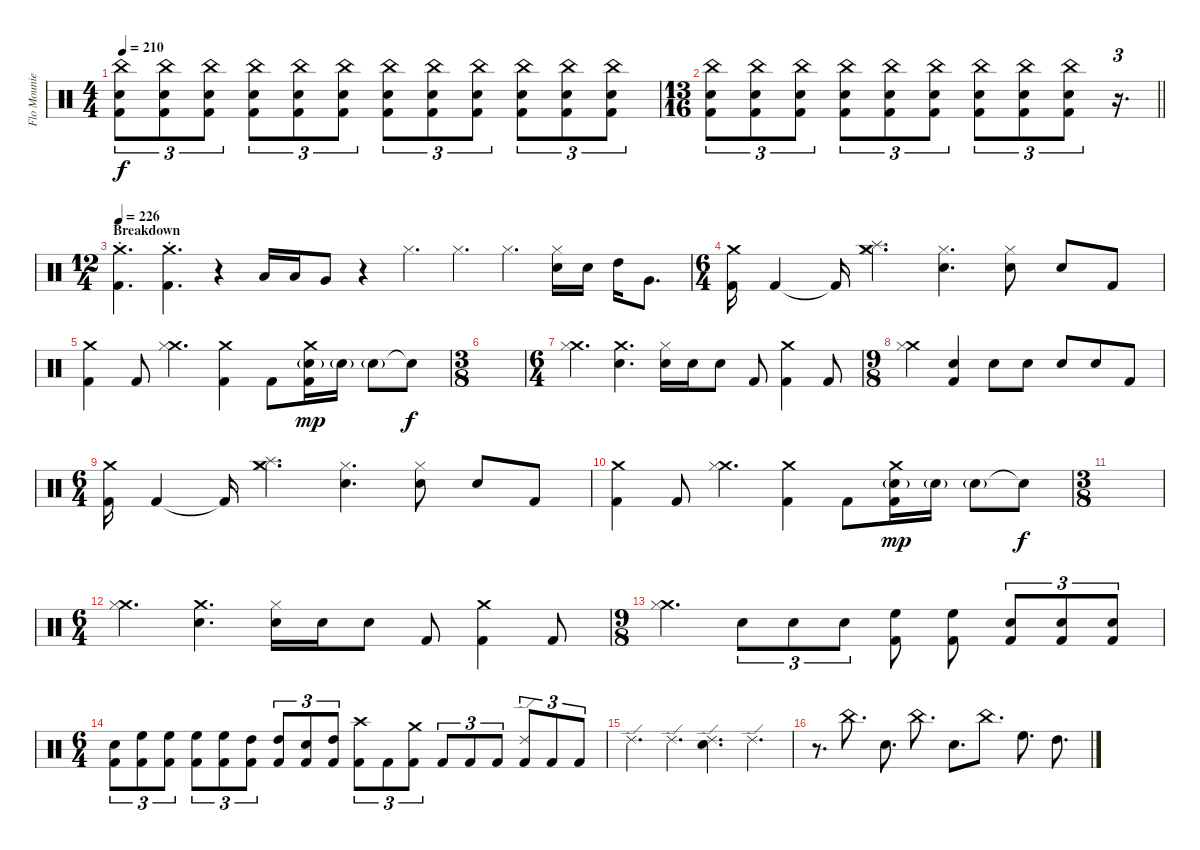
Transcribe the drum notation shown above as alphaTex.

\track ("Flo Mounier" "Flo Mounie") {instrument percussion}
\staff {score}
\articulation defaults
\ts (4 4)
\tempo 210
\clef neutral
\ks c
("China (hit)" "Snare (hit) 2" "Kick (hit) 2").8{tu (3 2) dy f} ("China (hit)" "Snare (hit) 2" "Kick (hit) 2").8{tu (3 2)} ("China (hit)" "Snare (hit) 2" "Kick (hit) 2").8{tu (3 2)} ("China (hit)" "Snare (hit) 2" "Kick (hit) 2").8{tu (3 2)} ("China (hit)" "Snare (hit) 2" "Kick (hit) 2").8{tu (3 2)} ("China (hit)" "Snare (hit) 2" "Kick (hit) 2").8{tu (3 2)} ("China (hit)" "Snare (hit) 2" "Kick (hit) 2").8{tu (3 2)} ("China (hit)" "Snare (hit) 2" "Kick (hit) 2").8{tu (3 2)} ("China (hit)" "Snare (hit) 2" "Kick (hit) 2").8{tu (3 2)} ("China (hit)" "Snare (hit) 2" "Kick (hit) 2").8{tu (3 2)} ("China (hit)" "Snare (hit) 2" "Kick (hit) 2").8{tu (3 2)} ("China (hit)" "Snare (hit) 2" "Kick (hit) 2").8{tu (3 2)} |
\ts (13 16)
\barLineRight lightlight
("China (hit)" "Snare (hit) 2" "Kick (hit) 2").8{tu (3 2)} ("China (hit)" "Snare (hit) 2" "Kick (hit) 2").8{tu (3 2)} ("China (hit)" "Snare (hit) 2" "Kick (hit) 2").8{tu (3 2)} ("China (hit)" "Snare (hit) 2" "Kick (hit) 2").8{tu (3 2)} ("China (hit)" "Snare (hit) 2" "Kick (hit) 2").8{tu (3 2)} ("China (hit)" "Snare (hit) 2" "Kick (hit) 2").8{tu (3 2)} ("China (hit)" "Snare (hit) 2" "Kick (hit) 2").8{tu (3 2)} ("China (hit)" "Snare (hit) 2" "Kick (hit) 2").8{tu (3 2)} ("China (hit)" "Snare (hit) 2" "Kick (hit) 2").8{tu (3 2)} r.16{d tu (3 2)} |
\ts (12 4)
\section ("" "Breakdown")
\tempo 226
("Crash medium (hit)"{st} "Kick (hit) 2").4{d} ("Crash medium (hit)"{st} "Kick (hit) 2").4{d} r.4 "Low Tom (hit)".16 "Low Tom (hit)".16 "Very Low Tom (hit)".8 r.4 "Hi-Hat (closed)".4{d} "Hi-Hat (closed)".4{d} "Hi-Hat (closed)".4{d} ("Snare (hit) 2" "Hi-Hat (closed)").16 "Snare (hit) 2".16 "High Tom (hit)".16 "Very Low Tom (hit)".8{d} |
\ts (6 4)
("Crash medium (hit)" "Kick (hit) 2").16 "Kick (hit) 2".4 "Kick (hit) 2"{t}.16 ("Crash medium (hit)" "Splash (hit)" "Hi-Hat (closed)").4{d} ("Snare (hit) 2" "Hi-Hat (closed)").4{d} ("Snare (hit) 2" "Hi-Hat (closed)").8 "Snare (hit) 2".8 "Kick (hit) 2".8 |
("Crash medium (hit)" "Kick (hit) 2").4 "Kick (hit) 2".8 ("Crash medium (hit)" "Hi-Hat (closed)").4{d} ("Crash medium (hit)" "Kick (hit) 2").4 "Kick (hit) 2".8 ("Crash medium (hit)" "Snare (hit) 2"{g} "Kick (hit) 2").16{dy mp} "Snare (hit) 2"{g}.16 "Snare (hit) 2"{g}.8 "Snare (hit) 2"{t}.8{dy f} |
\ts (3 8)
|
\ts (6 4)
("Crash medium (hit)" "Hi-Hat (closed)").4{d} ("Crash medium (hit)" "Snare (hit) 2").4{d} ("Snare (hit) 2" "Hi-Hat (closed)").16 "Snare (hit) 2".16 "Snare (hit) 2".8 "Kick (hit) 2".8 ("Crash medium (hit)" "Kick (hit) 2").4 "Kick (hit) 2".8 |
\ts (9 8)
("Crash medium (hit)" "Hi-Hat (closed)").4 ("Snare (hit) 2" "Kick (hit) 2").4 "Snare (hit) 2".8 "Snare (hit) 2".8 "Snare (hit) 2".8 "Snare (hit) 2".8 "Kick (hit) 2".8 |
\ts (6 4)
("Crash medium (hit)" "Kick (hit) 2").16 "Kick (hit) 2".4 "Kick (hit) 2"{t}.16 ("Crash medium (hit)" "Splash (hit)" "Hi-Hat (closed)").4{d} ("Snare (hit) 2" "Hi-Hat (closed)").4{d} ("Snare (hit) 2" "Hi-Hat (closed)").8 "Snare (hit) 2".8 "Kick (hit) 2".8 |
("Crash medium (hit)" "Kick (hit) 2").4 "Kick (hit) 2".8 ("Crash medium (hit)" "Hi-Hat (closed)").4{d} ("Crash medium (hit)" "Kick (hit) 2").4 "Kick (hit) 2".8 ("Crash medium (hit)" "Snare (hit) 2"{g} "Kick (hit) 2").16{dy mp} "Snare (hit) 2"{g}.16 "Snare (hit) 2"{g}.8 "Snare (hit) 2"{t}.8{dy f} |
\ts (3 8)
|
\ts (6 4)
("Crash medium (hit)" "Hi-Hat (closed)").4{d} ("Crash medium (hit)" "Snare (hit) 2").4{d} ("Snare (hit) 2" "Hi-Hat (closed)").16 "Snare (hit) 2".16 "Snare (hit) 2".8 "Kick (hit) 2".8 ("Crash medium (hit)" "Kick (hit) 2").4 "Kick (hit) 2".8 |
\ts (9 8)
("Crash medium (hit)" "Hi-Hat (closed)").4{d} "Snare (hit) 2".8{tu (3 2)} "Snare (hit) 2".8{tu (3 2)} "Snare (hit) 2".8{tu (3 2)} ("High Floor Tom (hit)" "Kick (hit) 2").8 ("High Floor Tom (hit)" "Kick (hit) 2").8 ("Snare (hit) 2" "Kick (hit) 2").8{tu (3 2)} ("Snare (hit) 2" "Kick (hit) 2").8{tu (3 2)} ("Snare (hit) 2" "Kick (hit) 2").8{tu (3 2)} |
\ts (6 4)
("Snare (hit) 2" "Kick (hit) 2").8{tu (3 2)} ("High Floor Tom (hit)" "Kick (hit) 2").8{tu (3 2)} ("High Floor Tom (hit)" "Kick (hit) 2").8{tu (3 2)} ("High Floor Tom (hit)" "Kick (hit) 2").8{tu (3 2)} ("High Floor Tom (hit)" "Kick (hit) 2").8{tu (3 2)} ("High Tom (hit)" "Kick (hit) 2").8{tu (3 2)} ("High Tom (hit)" "Kick (hit) 2").8{tu (3 2)} ("Snare (hit) 2" "Kick (hit) 2").8{tu (3 2)} ("High Tom (hit)" "Kick (hit) 2").8{tu (3 2)} ("Crash high (hit)" "Kick (hit) 2").8{tu (3 2)} "Kick (hit) 2".8{tu (3 2)} ("Crash medium (hit)" "Kick (hit) 2").8{tu (3 2)} "Kick (hit) 2".8{tu (3 2)} "Kick (hit) 2".8{tu (3 2)} "Kick (hit) 2".8{tu (3 2)} ("Ride (edge) 2" "Kick (hit) 2").8{tu (3 2)} "Kick (hit) 2".8{tu (3 2)} "Kick (hit) 2".8{tu (3 2)} |
"Ride (edge) 2".4{d} "Ride (edge) 2".4{d} ("Ride (edge) 2" "Snare (hit) 2").4{d} "Ride (edge) 2".4{d} |
r.8{d} "China (hit)".8{d} "Snare (hit) 2".8{d} "China (hit)".8{d} "Snare (hit) 2".8{d} "China (hit)".8{d} "High Floor Tom (hit)".8{d} "High Tom (hit)".8{d}
